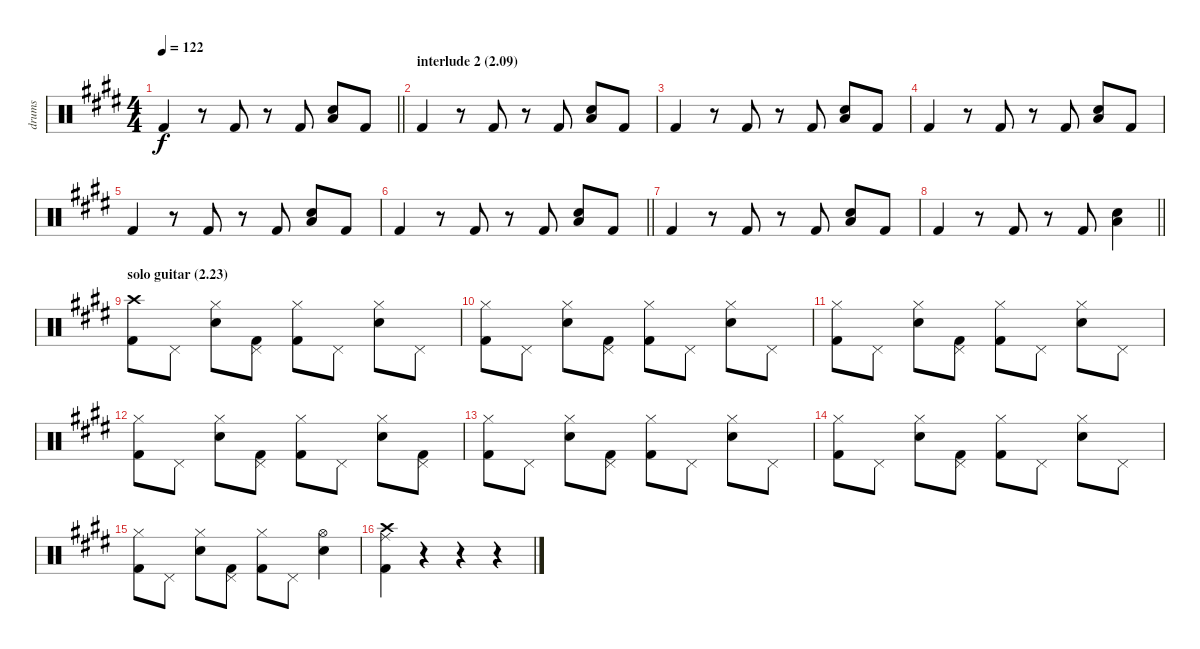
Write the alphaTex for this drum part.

\track ("drums" "drums") {instrument percussion}
\staff {score}
\articulation defaults
\ts (4 4)
\tempo 122
\clef neutral
\barLineRight lightlight
\ks e "Kick (hit) 2".4{dy f}
r.8 "Kick (hit) 2".8 r.8 "Kick (hit) 2".8 ("Low Tom (hit)" "Electric Snare (hit)").8 "Kick (hit) 2".8 |
\section ("" "interlude 2 (2.09)")
"Kick (hit) 2".4 r.8 "Kick (hit) 2".8 r.8 "Kick (hit) 2".8 ("Low Tom (hit)" "Electric Snare (hit)").8 "Kick (hit) 2".8 |
"Kick (hit) 2".4 r.8 "Kick (hit) 2".8 r.8 "Kick (hit) 2".8 ("Low Tom (hit)" "Electric Snare (hit)").8 "Kick (hit) 2".8 |
"Kick (hit) 2".4 r.8 "Kick (hit) 2".8 r.8 "Kick (hit) 2".8 ("Low Tom (hit)" "Electric Snare (hit)").8 "Kick (hit) 2".8 |
"Kick (hit) 2".4 r.8 "Kick (hit) 2".8 r.8 "Kick (hit) 2".8 ("Low Tom (hit)" "Electric Snare (hit)").8 "Kick (hit) 2".8 |
\barLineRight lightlight "Kick (hit) 2".4
r.8 "Kick (hit) 2".8 r.8 "Kick (hit) 2".8 ("Low Tom (hit)" "Electric Snare (hit)").8 "Kick (hit) 2".8 |
"Kick (hit) 2".4 r.8 "Kick (hit) 2".8 r.8 "Kick (hit) 2".8 ("Low Tom (hit)" "Electric Snare (hit)").8 "Kick (hit) 2".8 |
\barLineRight lightlight "Kick (hit) 2".4
r.8 "Kick (hit) 2".8 r.8 "Kick (hit) 2".8 ("Low Tom (hit)" "Electric Snare (hit)").4 |
\section ("" "solo guitar (2.23)")
("Crash high (hit)" "Kick (hit) 2").8 "Pedal Hi-Hat (hit)".8 ("Hi-Hat (closed)" "Electric Snare (hit)").8 ("Pedal Hi-Hat (hit)" "Kick (hit) 2").8 ("Hi-Hat (closed)" "Kick (hit) 2").8 "Pedal Hi-Hat (hit)".8 ("Hi-Hat (closed)" "Electric Snare (hit)").8 "Pedal Hi-Hat (hit)".8 |
("Hi-Hat (closed)" "Kick (hit) 2").8 "Pedal Hi-Hat (hit)".8 ("Hi-Hat (closed)" "Electric Snare (hit)").8 ("Pedal Hi-Hat (hit)" "Kick (hit) 2").8 ("Hi-Hat (closed)" "Kick (hit) 2").8 "Pedal Hi-Hat (hit)".8 ("Hi-Hat (closed)" "Electric Snare (hit)").8 "Pedal Hi-Hat (hit)".8 |
("Hi-Hat (closed)" "Kick (hit) 2").8 "Pedal Hi-Hat (hit)".8 ("Hi-Hat (closed)" "Electric Snare (hit)").8 ("Pedal Hi-Hat (hit)" "Kick (hit) 2").8 ("Hi-Hat (closed)" "Kick (hit) 2").8 "Pedal Hi-Hat (hit)".8 ("Hi-Hat (closed)" "Electric Snare (hit)").8 "Pedal Hi-Hat (hit)".8 |
("Hi-Hat (closed)" "Kick (hit) 2").8 "Pedal Hi-Hat (hit)".8 ("Hi-Hat (closed)" "Electric Snare (hit)").8 ("Pedal Hi-Hat (hit)" "Kick (hit) 2").8 ("Hi-Hat (closed)" "Kick (hit) 2").8 "Pedal Hi-Hat (hit)".8 ("Hi-Hat (closed)" "Electric Snare (hit)").8 ("Pedal Hi-Hat (hit)" "Kick (hit) 2").8 |
("Hi-Hat (closed)" "Kick (hit) 2").8 "Pedal Hi-Hat (hit)".8 ("Hi-Hat (closed)" "Electric Snare (hit)").8 ("Pedal Hi-Hat (hit)" "Kick (hit) 2").8 ("Hi-Hat (closed)" "Kick (hit) 2").8 "Pedal Hi-Hat (hit)".8 ("Hi-Hat (closed)" "Electric Snare (hit)").8 "Pedal Hi-Hat (hit)".8 |
("Hi-Hat (closed)" "Kick (hit) 2").8 "Pedal Hi-Hat (hit)".8 ("Hi-Hat (closed)" "Electric Snare (hit)").8 ("Pedal Hi-Hat (hit)" "Kick (hit) 2").8 ("Hi-Hat (closed)" "Kick (hit) 2").8 "Pedal Hi-Hat (hit)".8 ("Hi-Hat (closed)" "Electric Snare (hit)").8 "Pedal Hi-Hat (hit)".8 |
("Hi-Hat (closed)" "Kick (hit) 2").8 "Pedal Hi-Hat (hit)".8 ("Hi-Hat (closed)" "Electric Snare (hit)").8 ("Pedal Hi-Hat (hit)" "Kick (hit) 2").8 ("Hi-Hat (closed)" "Kick (hit) 2").8 "Pedal Hi-Hat (hit)".8 ("Hi-Hat (open)" "Electric Snare (hit)").4 |
("Ride (middle)" "Crash high (hit)" "Kick (hit) 2").4 r.4 r.4 r.4
